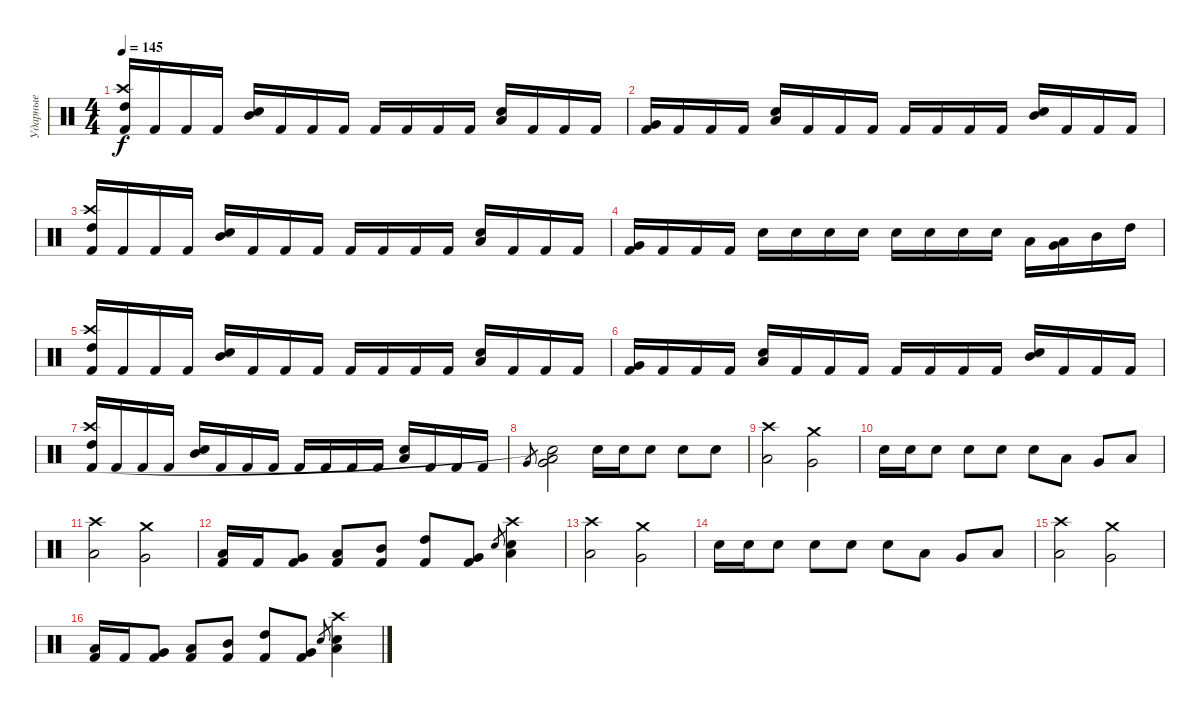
\track ("Ударные" "Ударные") {instrument percussion}
\staff {score}
\articulation defaults
\ts (4 4)
\tempo 145
\clef neutral
\ks c
("High Tom (hit)" "Crash high (hit)" "Kick (hit) 2").16{dy f} "Kick (hit) 2".16 "Kick (hit) 2".16 "Kick (hit) 2".16 ("Mid Tom (hit)" "Snare (hit) 2").16 "Kick (hit) 2".16 "Kick (hit) 2".16 "Kick (hit) 2".16 "Kick (hit) 2".16 "Kick (hit) 2".16 "Kick (hit) 2".16 "Kick (hit) 2".16 ("Low Tom (hit)" "Snare (hit) 2").16 "Kick (hit) 2".16 "Kick (hit) 2".16 "Kick (hit) 2".16 |
("Very Low Tom (hit)" "Kick (hit) 2").16 "Kick (hit) 2".16 "Kick (hit) 2".16 "Kick (hit) 2".16 ("Low Floor Tom (hit)" "Snare (hit) 2").16 "Kick (hit) 2".16 "Kick (hit) 2".16 "Kick (hit) 2".16 "Kick (hit) 2".16 "Kick (hit) 2".16 "Kick (hit) 2".16 "Kick (hit) 2".16 ("Mid Tom (hit)" "Snare (hit) 2").16 "Kick (hit) 2".16 "Kick (hit) 2".16 "Kick (hit) 2".16 |
("High Tom (hit)" "Crash high (hit)" "Kick (hit) 2").16 "Kick (hit) 2".16 "Kick (hit) 2".16 "Kick (hit) 2".16 ("Mid Tom (hit)" "Snare (hit) 2").16 "Kick (hit) 2".16 "Kick (hit) 2".16 "Kick (hit) 2".16 "Kick (hit) 2".16 "Kick (hit) 2".16 "Kick (hit) 2".16 "Kick (hit) 2".16 ("Low Tom (hit)" "Snare (hit) 2").16 "Kick (hit) 2".16 "Kick (hit) 2".16 "Kick (hit) 2".16 |
("Very Low Tom (hit)" "Kick (hit) 2").16 "Kick (hit) 2".16 "Kick (hit) 2".16 "Kick (hit) 2".16 "Snare (hit) 2".16 "Snare (hit) 2".16 "Snare (hit) 2".16 "Snare (hit) 2".16 "Snare (hit) 2".16 "Snare (hit) 2".16 "Snare (hit) 2".16 "Snare (hit) 2".16 "Low Floor Tom (hit)".16 ("Very Low Tom (hit)" "Low Tom (hit)").16 "Mid Tom (hit)".16 "High Tom (hit)".16 |
("High Tom (hit)" "Crash high (hit)" "Kick (hit) 2").16 "Kick (hit) 2".16 "Kick (hit) 2".16 "Kick (hit) 2".16 ("Mid Tom (hit)" "Snare (hit) 2").16 "Kick (hit) 2".16 "Kick (hit) 2".16 "Kick (hit) 2".16 "Kick (hit) 2".16 "Kick (hit) 2".16 "Kick (hit) 2".16 "Kick (hit) 2".16 ("Low Tom (hit)" "Snare (hit) 2").16 "Kick (hit) 2".16 "Kick (hit) 2".16 "Kick (hit) 2".16 |
("Very Low Tom (hit)" "Kick (hit) 2").16 "Kick (hit) 2".16 "Kick (hit) 2".16 "Kick (hit) 2".16 ("Low Floor Tom (hit)" "Snare (hit) 2").16 "Kick (hit) 2".16 "Kick (hit) 2".16 "Kick (hit) 2".16 "Kick (hit) 2".16 "Kick (hit) 2".16 "Kick (hit) 2".16 "Kick (hit) 2".16 ("Mid Tom (hit)" "Snare (hit) 2").16 "Kick (hit) 2".16 "Kick (hit) 2".16 "Kick (hit) 2".16 |
("High Tom (hit)" "Crash high (hit)" "Kick (hit) 2").16 "Kick (hit) 2".16 "Kick (hit) 2".16 "Kick (hit) 2".16 ("Mid Tom (hit)" "Snare (hit) 2").16 "Kick (hit) 2".16 "Kick (hit) 2".16 "Kick (hit) 2".16 "Kick (hit) 2".16 "Kick (hit) 2".16 "Kick (hit) 2".16 "Kick (hit) 2".16 ("Low Tom (hit)" "Snare (hit) 2").16 "Kick (hit) 2".16 "Kick (hit) 2".16 "Kick (hit) 2".16 |
"Very Low Tom (hit)".8{gr} ("Very Low Tom (hit)" "Low Floor Tom (hit)" "Snare (hit)"{t}).2 "Snare (hit) 2".16 "Snare (hit) 2".16 "Snare (hit) 2".8 "Snare (hit) 2".8 "Snare (hit) 2".8 |
("Low Floor Tom (hit)" "Crash high (hit)").2 ("Very Low Tom (hit)" "Crash medium (hit)").2 |
"Snare (hit) 2".16 "Snare (hit) 2".16 "Snare (hit) 2".8 "Snare (hit) 2".8 "Snare (hit) 2".8 "Snare (hit) 2".8 "Low Floor Tom (hit)".8 "Very Low Tom (hit)".8 "Low Tom (hit)".8 |
("Low Floor Tom (hit)" "Crash high (hit)").2 ("Very Low Tom (hit)" "Crash medium (hit)").2 |
("Kick (hit) 2" "Low Floor Tom (hit)").16 "Kick (hit) 2".16 ("Kick (hit) 2" "Very Low Tom (hit)").8 ("Kick (hit) 2" "Low Tom (hit)").8 ("Kick (hit) 2" "Mid Tom (hit)").8 ("Kick (hit) 2" "High Tom (hit)").8 ("Kick (hit) 2" "Very Low Tom (hit)").8 "Electric Snare (hit)".8{gr} ("Crash high (hit)" "Electric Snare (hit)" "Low Floor Tom (hit)").4 |
("Low Floor Tom (hit)" "Crash high (hit)").2 ("Very Low Tom (hit)" "Crash medium (hit)").2 |
"Snare (hit) 2".16 "Snare (hit) 2".16 "Snare (hit) 2".8 "Snare (hit) 2".8 "Snare (hit) 2".8 "Snare (hit) 2".8 "Low Floor Tom (hit)".8 "Very Low Tom (hit)".8 "Low Tom (hit)".8 |
("Low Floor Tom (hit)" "Crash high (hit)").2 ("Very Low Tom (hit)" "Crash medium (hit)").2 |
("Kick (hit) 2" "Low Floor Tom (hit)").16 "Kick (hit) 2".16 ("Kick (hit) 2" "Very Low Tom (hit)").8 ("Kick (hit) 2" "Low Tom (hit)").8 ("Kick (hit) 2" "Mid Tom (hit)").8 ("Kick (hit) 2" "High Tom (hit)").8 ("Kick (hit) 2" "Very Low Tom (hit)").8 "Electric Snare (hit)".8{gr} ("Crash high (hit)" "Electric Snare (hit)" "Low Floor Tom (hit)").4
